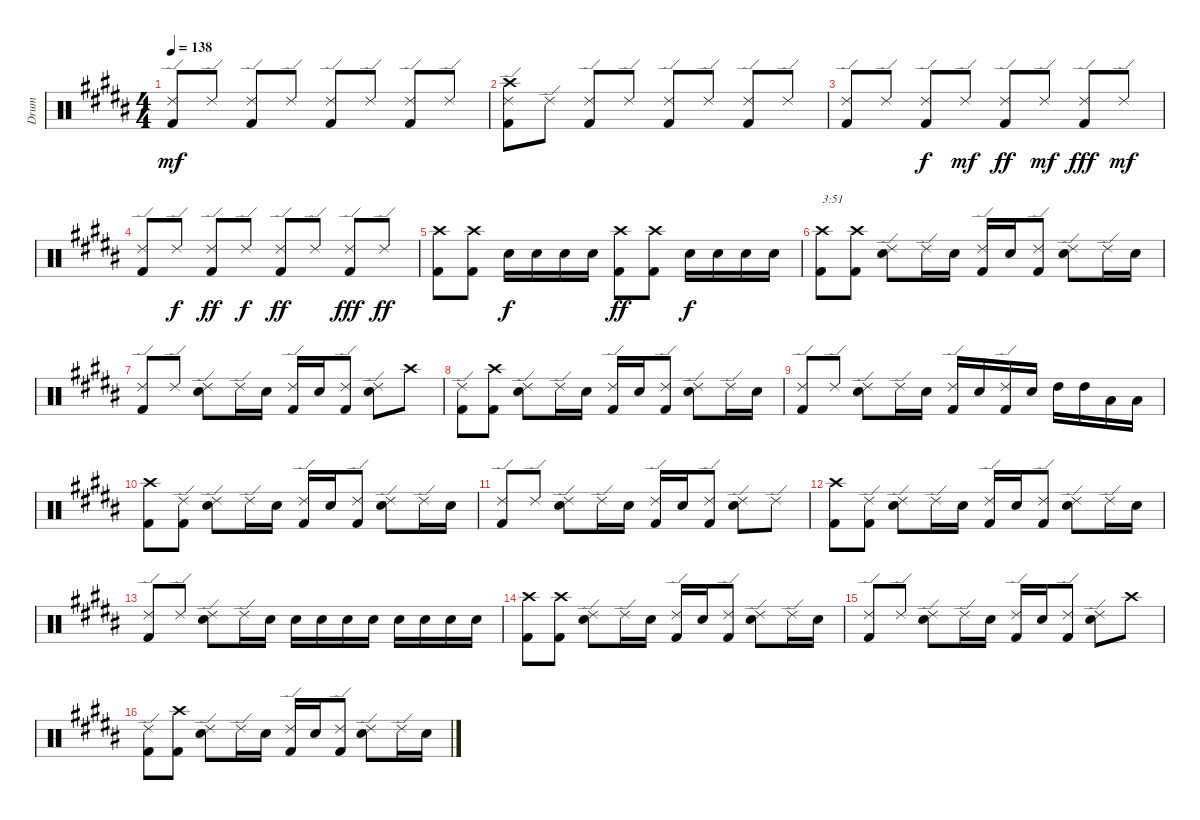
\track ("Drum" "Drum") {instrument percussion}
\staff {score}
\articulation defaults
\ts (4 4)
\tempo 138
\clef neutral
\ks g#minor
("Ride (edge) 2" "Kick (hit) 2").8{dy mf} "Ride (edge) 2".8 ("Ride (edge) 2" "Kick (hit) 2").8 "Ride (edge) 2".8 ("Ride (edge) 2" "Kick (hit) 2").8 "Ride (edge) 2".8 ("Ride (edge) 2" "Kick (hit) 2").8 "Ride (edge) 2".8 |
\ks b
("Ride (edge) 2" "Crash high (hit)" "Kick (hit) 2").8 "Ride (edge) 2".8 ("Ride (edge) 2" "Kick (hit) 2").8 "Ride (edge) 2".8 ("Ride (edge) 2" "Kick (hit) 2").8 "Ride (edge) 2".8 ("Ride (edge) 2" "Kick (hit) 2").8 "Ride (edge) 2".8 |
\ks g#minor
("Ride (edge) 2" "Kick (hit) 2").8 "Ride (edge) 2".8 ("Ride (edge) 2" "Kick (hit) 2").8{dy f} "Ride (edge) 2".8{dy mf} ("Ride (edge) 2" "Kick (hit) 2").8{dy ff} "Ride (edge) 2".8{dy mf} ("Ride (edge) 2" "Kick (hit) 2").8{dy fff} "Ride (edge) 2".8{dy mf} |
\ks b
("Ride (edge) 2" "Kick (hit) 2").8 "Ride (edge) 2".8{dy f} ("Ride (edge) 2" "Kick (hit) 2").8{dy ff} "Ride (edge) 2".8{dy f} ("Ride (edge) 2" "Kick (hit) 2").8{dy ff} "Ride (edge) 2".8 ("Ride (edge) 2" "Kick (hit) 2").8{dy fff} "Ride (edge) 2".8{dy ff} |
\ks g#minor
("Crash high (hit)" "Kick (hit) 2").8 ("Crash high (hit)" "Kick (hit) 2").8 "Electric Snare (hit)".16{dy f} "Electric Snare (hit)".16 "Electric Snare (hit)".16 "Electric Snare (hit)".16 ("Crash high (hit)" "Kick (hit) 2").8{dy ff} ("Crash high (hit)" "Kick (hit) 2").8 "Electric Snare (hit)".16{dy f} "Electric Snare (hit)".16 "Electric Snare (hit)".16 "Electric Snare (hit)".16 |
\ks b
("Crash high (hit)" "Kick (hit) 2").8{txt "3:51"} ("Crash high (hit)" "Kick (hit) 2").8 ("Ride (edge) 2" "Electric Snare (hit)").8 "Ride (edge) 2".16 "Electric Snare (hit)".16 ("Ride (edge) 2" "Kick (hit) 2").16 "Electric Snare (hit)".16 ("Ride (edge) 2" "Kick (hit) 2").8 ("Ride (edge) 2" "Electric Snare (hit)").8 "Ride (edge) 2".16 "Electric Snare (hit)".16 |
\ks g#minor
("Ride (edge) 2" "Kick (hit) 2").8 "Ride (edge) 2".8 ("Ride (edge) 2" "Electric Snare (hit)").8 "Ride (edge) 2".16 "Electric Snare (hit)".16 ("Ride (edge) 2" "Kick (hit) 2").16 "Electric Snare (hit)".16 ("Ride (edge) 2" "Kick (hit) 2").8 ("Ride (edge) 2" "Electric Snare (hit)").8 "Crash high (hit)".8 |
("Ride (edge) 2" "Kick (hit) 2").8 ("Crash high (hit)" "Kick (hit) 2").8 ("Ride (edge) 2" "Electric Snare (hit)").8 "Ride (edge) 2".16 "Electric Snare (hit)".16 ("Ride (edge) 2" "Kick (hit) 2").16 "Electric Snare (hit)".16 ("Ride (edge) 2" "Kick (hit) 2").8 ("Ride (edge) 2" "Electric Snare (hit)").8 "Ride (edge) 2".16 "Electric Snare (hit)".16 |
("Ride (edge) 2" "Kick (hit) 2").8 "Ride (edge) 2".8 ("Ride (edge) 2" "Electric Snare (hit)").8 "Ride (edge) 2".16 "Electric Snare (hit)".16 ("Ride (edge) 2" "Kick (hit) 2").16 "Electric Snare (hit)".16 ("Ride (edge) 2" "Kick (hit) 2").16 "Electric Snare (hit)".16 "High Tom (hit)".16 "High Tom (hit)".16 "Low Floor Tom (hit)".16 "Low Floor Tom (hit)".16 |
\ks b
("Crash high (hit)" "Kick (hit) 2").8 ("Ride (edge) 2" "Kick (hit) 2").8 ("Ride (edge) 2" "Electric Snare (hit)").8 "Ride (edge) 2".16 "Electric Snare (hit)".16 ("Ride (edge) 2" "Kick (hit) 2").16 "Electric Snare (hit)".16 ("Ride (edge) 2" "Kick (hit) 2").8 ("Ride (edge) 2" "Electric Snare (hit)").8 "Ride (edge) 2".16 "Electric Snare (hit)".16 |
\ks g#minor
("Ride (edge) 2" "Kick (hit) 2").8 "Ride (edge) 2".8 ("Ride (edge) 2" "Electric Snare (hit)").8 "Ride (edge) 2".16 "Electric Snare (hit)".16 ("Ride (edge) 2" "Kick (hit) 2").16 "Electric Snare (hit)".16 ("Ride (edge) 2" "Kick (hit) 2").8 ("Ride (edge) 2" "Electric Snare (hit)").8 "Ride (edge) 2".8 |
("Crash high (hit)" "Kick (hit) 2").8 ("Ride (edge) 2" "Kick (hit) 2").8 ("Ride (edge) 2" "Electric Snare (hit)").8 "Ride (edge) 2".16 "Electric Snare (hit)".16 ("Ride (edge) 2" "Kick (hit) 2").16 "Electric Snare (hit)".16 ("Ride (edge) 2" "Kick (hit) 2").8 ("Ride (edge) 2" "Electric Snare (hit)").8 "Ride (edge) 2".16 "Electric Snare (hit)".16 |
("Ride (edge) 2" "Kick (hit) 2").8 "Ride (edge) 2".8 ("Ride (edge) 2" "Electric Snare (hit)").8 "Ride (edge) 2".16 "Electric Snare (hit)".16 "Electric Snare (hit)".16 "Electric Snare (hit)".16 "Electric Snare (hit)".16 "Electric Snare (hit)".16 "Electric Snare (hit)".16 "Electric Snare (hit)".16 "Electric Snare (hit)".16 "Electric Snare (hit)".16 |
("Crash high (hit)" "Kick (hit) 2").8 ("Crash high (hit)" "Kick (hit) 2").8 ("Ride (edge) 2" "Electric Snare (hit)").8 "Ride (edge) 2".16 "Electric Snare (hit)".16 ("Ride (edge) 2" "Kick (hit) 2").16 "Electric Snare (hit)".16 ("Ride (edge) 2" "Kick (hit) 2").8 ("Ride (edge) 2" "Electric Snare (hit)").8 "Ride (edge) 2".16 "Electric Snare (hit)".16 |
("Ride (edge) 2" "Kick (hit) 2").8 "Ride (edge) 2".8 ("Ride (edge) 2" "Electric Snare (hit)").8 "Ride (edge) 2".16 "Electric Snare (hit)".16 ("Ride (edge) 2" "Kick (hit) 2").16 "Electric Snare (hit)".16 ("Ride (edge) 2" "Kick (hit) 2").8 ("Ride (edge) 2" "Electric Snare (hit)").8 "Crash high (hit)".8 |
("Ride (edge) 2" "Kick (hit) 2").8 ("Crash high (hit)" "Kick (hit) 2").8 ("Ride (edge) 2" "Electric Snare (hit)").8 "Ride (edge) 2".16 "Electric Snare (hit)".16 ("Ride (edge) 2" "Kick (hit) 2").16 "Electric Snare (hit)".16 ("Ride (edge) 2" "Kick (hit) 2").8 ("Ride (edge) 2" "Electric Snare (hit)").8 "Ride (edge) 2".16 "Electric Snare (hit)".16
